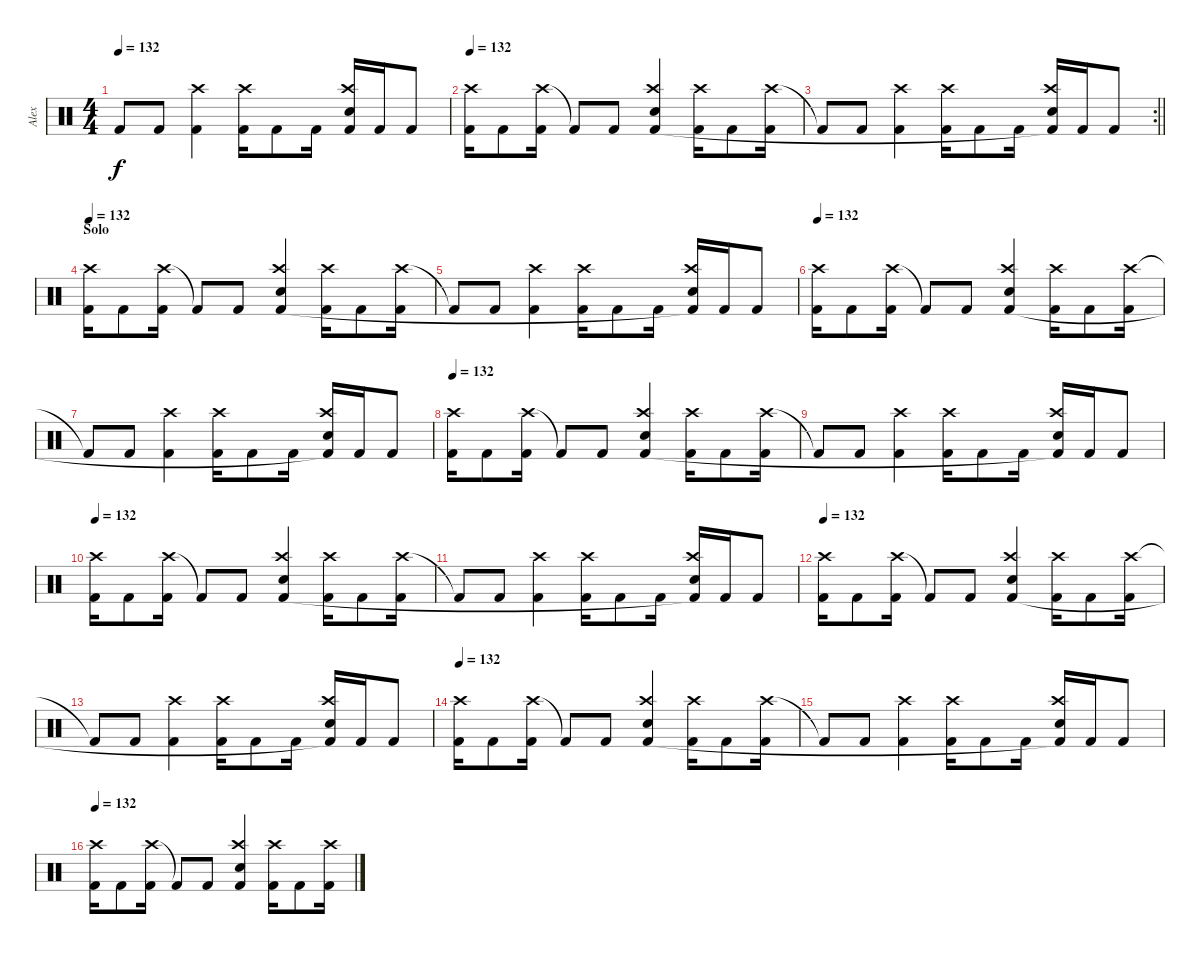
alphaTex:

\track ("Alex" "Alex") {instrument percussion}
\staff {score}
\articulation defaults
\ts (4 4)
\tempo 132
\clef neutral
\ks c "Kick (hit) 2"{t}.8{dy f} "Kick (hit) 2".8
("Crash high (hit)" "Kick (hit) 2").4 ("Crash high (hit)" "Kick (hit) 2").16 "Kick (hit) 2".8 "Kick (hit) 2".16 ("Crash high (hit)" "Electric Snare (hit)" "Kick (hit) 2"{t}).16 "Kick (hit) 2".16 "Kick (hit) 2".8 |
\tempo 132
("Crash high (hit)" "Kick (hit) 2").16 "Kick (hit) 2".8 ("Crash high (hit)" "Kick (hit) 2").16 "Kick (hit) 2"{t}.8 "Kick (hit) 2".8 ("Crash high (hit)" "Electric Snare (hit)" "Kick (hit) 2").4 ("Crash high (hit)" "Kick (hit) 2").16 "Kick (hit) 2".8 ("Crash high (hit)" "Kick (hit) 2").16 |
\rc 2
\barLineRight lightlight "Kick (hit) 2"{t}.8 "Kick (hit) 2".8
("Crash high (hit)" "Kick (hit) 2").4 ("Crash high (hit)" "Kick (hit) 2").16 "Kick (hit) 2".8 "Kick (hit) 2".16 ("Crash high (hit)" "Electric Snare (hit)" "Kick (hit) 2"{t}).16 "Kick (hit) 2".16 "Kick (hit) 2".8 |
\section ("" "Solo")
\tempo 132
("Crash high (hit)" "Kick (hit) 2").16 "Kick (hit) 2".8 ("Crash high (hit)" "Kick (hit) 2").16 "Kick (hit) 2"{t}.8 "Kick (hit) 2".8 ("Crash high (hit)" "Electric Snare (hit)" "Kick (hit) 2").4 ("Crash high (hit)" "Kick (hit) 2").16 "Kick (hit) 2".8 ("Crash high (hit)" "Kick (hit) 2").16 |
"Kick (hit) 2"{t}.8 "Kick (hit) 2".8 ("Crash high (hit)" "Kick (hit) 2").4 ("Crash high (hit)" "Kick (hit) 2").16 "Kick (hit) 2".8 "Kick (hit) 2".16 ("Crash high (hit)" "Electric Snare (hit)" "Kick (hit) 2"{t}).16 "Kick (hit) 2".16 "Kick (hit) 2".8 |
\tempo 132
("Crash high (hit)" "Kick (hit) 2").16 "Kick (hit) 2".8 ("Crash high (hit)" "Kick (hit) 2").16 "Kick (hit) 2"{t}.8 "Kick (hit) 2".8 ("Crash high (hit)" "Electric Snare (hit)" "Kick (hit) 2").4 ("Crash high (hit)" "Kick (hit) 2").16 "Kick (hit) 2".8 ("Crash high (hit)" "Kick (hit) 2").16 |
"Kick (hit) 2"{t}.8 "Kick (hit) 2".8 ("Crash high (hit)" "Kick (hit) 2").4 ("Crash high (hit)" "Kick (hit) 2").16 "Kick (hit) 2".8 "Kick (hit) 2".16 ("Crash high (hit)" "Electric Snare (hit)" "Kick (hit) 2"{t}).16 "Kick (hit) 2".16 "Kick (hit) 2".8 |
\tempo 132
("Crash high (hit)" "Kick (hit) 2").16 "Kick (hit) 2".8 ("Crash high (hit)" "Kick (hit) 2").16 "Kick (hit) 2"{t}.8 "Kick (hit) 2".8 ("Crash high (hit)" "Electric Snare (hit)" "Kick (hit) 2").4 ("Crash high (hit)" "Kick (hit) 2").16 "Kick (hit) 2".8 ("Crash high (hit)" "Kick (hit) 2").16 |
"Kick (hit) 2"{t}.8 "Kick (hit) 2".8 ("Crash high (hit)" "Kick (hit) 2").4 ("Crash high (hit)" "Kick (hit) 2").16 "Kick (hit) 2".8 "Kick (hit) 2".16 ("Crash high (hit)" "Electric Snare (hit)" "Kick (hit) 2"{t}).16 "Kick (hit) 2".16 "Kick (hit) 2".8 |
\tempo 132
("Crash high (hit)" "Kick (hit) 2").16 "Kick (hit) 2".8 ("Crash high (hit)" "Kick (hit) 2").16 "Kick (hit) 2"{t}.8 "Kick (hit) 2".8 ("Crash high (hit)" "Electric Snare (hit)" "Kick (hit) 2").4 ("Crash high (hit)" "Kick (hit) 2").16 "Kick (hit) 2".8 ("Crash high (hit)" "Kick (hit) 2").16 |
"Kick (hit) 2"{t}.8 "Kick (hit) 2".8 ("Crash high (hit)" "Kick (hit) 2").4 ("Crash high (hit)" "Kick (hit) 2").16 "Kick (hit) 2".8 "Kick (hit) 2".16 ("Crash high (hit)" "Electric Snare (hit)" "Kick (hit) 2"{t}).16 "Kick (hit) 2".16 "Kick (hit) 2".8 |
\tempo 132
("Crash high (hit)" "Kick (hit) 2").16 "Kick (hit) 2".8 ("Crash high (hit)" "Kick (hit) 2").16 "Kick (hit) 2"{t}.8 "Kick (hit) 2".8 ("Crash high (hit)" "Electric Snare (hit)" "Kick (hit) 2").4 ("Crash high (hit)" "Kick (hit) 2").16 "Kick (hit) 2".8 ("Crash high (hit)" "Kick (hit) 2").16 |
"Kick (hit) 2"{t}.8 "Kick (hit) 2".8 ("Crash high (hit)" "Kick (hit) 2").4 ("Crash high (hit)" "Kick (hit) 2").16 "Kick (hit) 2".8 "Kick (hit) 2".16 ("Crash high (hit)" "Electric Snare (hit)" "Kick (hit) 2"{t}).16 "Kick (hit) 2".16 "Kick (hit) 2".8 |
\tempo 132
("Crash high (hit)" "Kick (hit) 2").16 "Kick (hit) 2".8 ("Crash high (hit)" "Kick (hit) 2").16 "Kick (hit) 2"{t}.8 "Kick (hit) 2".8 ("Crash high (hit)" "Electric Snare (hit)" "Kick (hit) 2").4 ("Crash high (hit)" "Kick (hit) 2").16 "Kick (hit) 2".8 ("Crash high (hit)" "Kick (hit) 2").16 |
"Kick (hit) 2"{t}.8 "Kick (hit) 2".8 ("Crash high (hit)" "Kick (hit) 2").4 ("Crash high (hit)" "Kick (hit) 2").16 "Kick (hit) 2".8 "Kick (hit) 2".16 ("Crash high (hit)" "Electric Snare (hit)" "Kick (hit) 2"{t}).16 "Kick (hit) 2".16 "Kick (hit) 2".8 |
\tempo 132
("Crash high (hit)" "Kick (hit) 2").16 "Kick (hit) 2".8 ("Crash high (hit)" "Kick (hit) 2").16 "Kick (hit) 2"{t}.8 "Kick (hit) 2".8 ("Crash high (hit)" "Electric Snare (hit)" "Kick (hit) 2").4 ("Crash high (hit)" "Kick (hit) 2").16 "Kick (hit) 2".8 ("Crash high (hit)" "Kick (hit) 2").16
